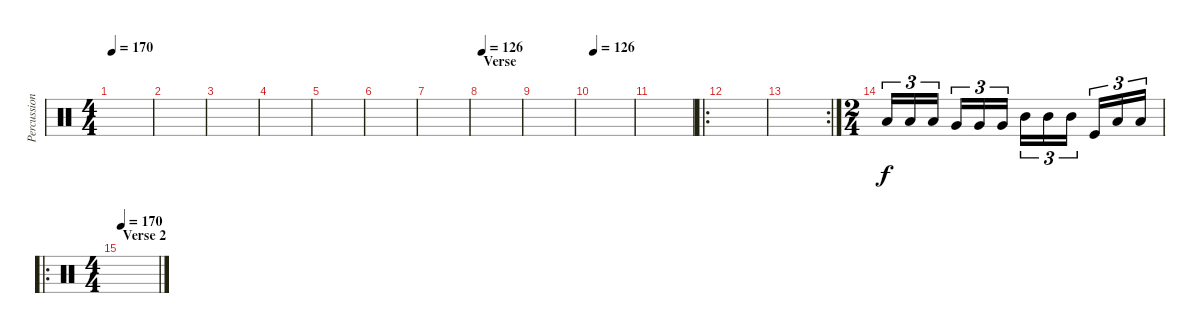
\track ("Percussion" "Percussion") {instrument percussion}
\staff {score}
\articulation defaults
\ts (4 4)
\tempo 170
\clef neutral
\ks c
|
|
|
|
|
|
|
\section ("" "Verse")
\tempo 126
|
|
\tempo 126
|
|
\ro
|
\rc 2
|
\ts (2 4)
"Low Tom (hit)".16{tu (3 2)} "Low Tom (hit)".16{tu (3 2)} "Low Tom (hit)".16{tu (3 2) beam splitsecondary} "Very Low Tom (hit)".16{tu (3 2)} "Very Low Tom (hit)".16{tu (3 2)} "Very Low Tom (hit)".16{tu (3 2)} "Mid Tom (hit)".16{tu (3 2)} "Mid Tom (hit)".16{tu (3 2)} "Mid Tom (hit)".16{tu (3 2) beam splitsecondary} "Kick (hit)".16{tu (3 2)} "Low Tom (hit)".16{tu (3 2)} "Low Tom (hit)".16{tu (3 2)} |
\ro
\ts (4 4)
\section ("" "Verse 2")
\tempo 170
